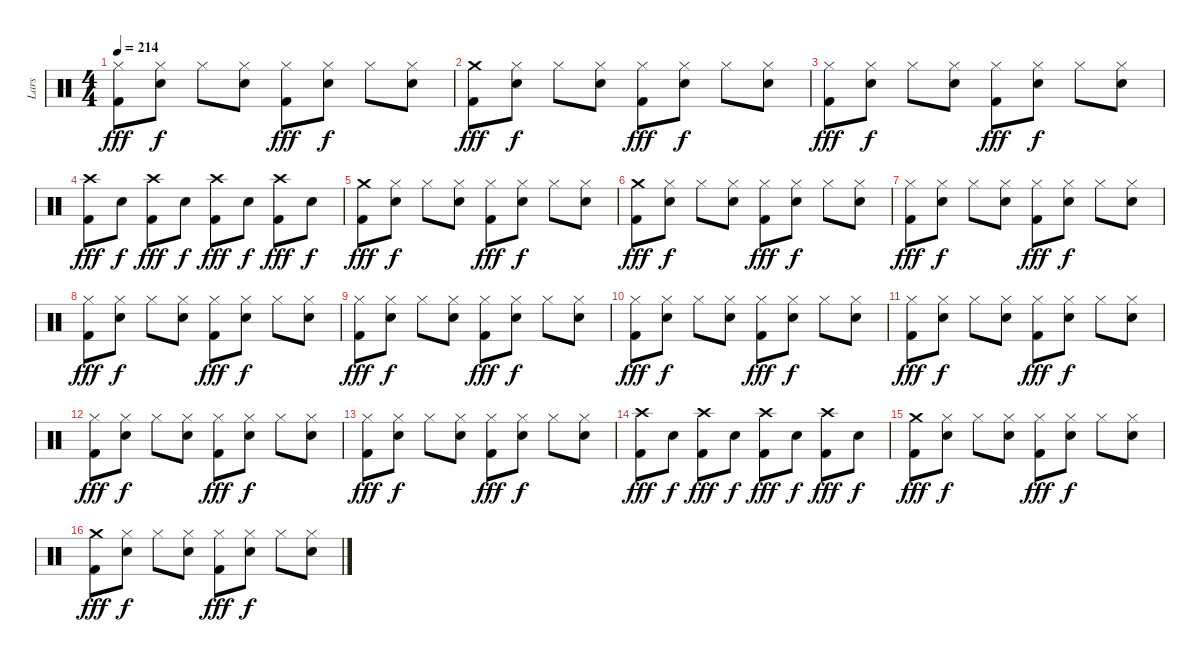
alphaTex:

\track ("Lars" "Lars") {instrument percussion}
\staff {score}
\articulation defaults
\ts (4 4)
\tempo 214
\clef neutral
\ks c
("Hi-Hat (closed)" "Kick (hit) 2").8{dy fff} ("Hi-Hat (closed)" "Snare (hit) 2").8{dy f} "Hi-Hat (closed)".8 ("Hi-Hat (closed)" "Snare (hit) 2").8 ("Hi-Hat (closed)" "Kick (hit) 2").8{dy fff} ("Hi-Hat (closed)" "Snare (hit) 2").8{dy f} "Hi-Hat (closed)".8 ("Hi-Hat (closed)" "Snare (hit) 2").8 |
("Crash medium (hit)" "Kick (hit) 2").8{dy fff} ("Hi-Hat (closed)" "Snare (hit) 2").8{dy f} "Hi-Hat (closed)".8 ("Hi-Hat (closed)" "Snare (hit) 2").8 ("Hi-Hat (closed)" "Kick (hit) 2").8{dy fff} ("Hi-Hat (closed)" "Snare (hit) 2").8{dy f} "Hi-Hat (closed)".8 ("Hi-Hat (closed)" "Snare (hit) 2").8 |
("Hi-Hat (closed)" "Kick (hit) 2").8{dy fff} ("Hi-Hat (closed)" "Snare (hit) 2").8{dy f} "Hi-Hat (closed)".8 ("Hi-Hat (closed)" "Snare (hit) 2").8 ("Hi-Hat (closed)" "Kick (hit) 2").8{dy fff} ("Hi-Hat (closed)" "Snare (hit) 2").8{dy f} "Hi-Hat (closed)".8 ("Hi-Hat (closed)" "Snare (hit) 2").8 |
("Crash high (hit)" "Kick (hit) 2").8{dy fff} "Snare (hit) 2".8{dy f} ("Crash high (hit)" "Kick (hit) 2").8{dy fff} "Snare (hit) 2".8{dy f} ("Crash high (hit)" "Kick (hit) 2").8{dy fff} "Snare (hit) 2".8{dy f} ("Crash high (hit)" "Kick (hit) 2").8{dy fff} "Snare (hit) 2".8{dy f} |
("Crash medium (hit)" "Kick (hit) 2").8{dy fff} ("Hi-Hat (closed)" "Snare (hit) 2").8{dy f} "Hi-Hat (closed)".8 ("Hi-Hat (closed)" "Snare (hit) 2").8 ("Hi-Hat (closed)" "Kick (hit) 2").8{dy fff} ("Hi-Hat (closed)" "Snare (hit) 2").8{dy f} "Hi-Hat (closed)".8 ("Hi-Hat (closed)" "Snare (hit) 2").8 |
("Crash medium (hit)" "Kick (hit) 2").8{dy fff} ("Hi-Hat (closed)" "Snare (hit) 2").8{dy f} "Hi-Hat (closed)".8 ("Hi-Hat (closed)" "Snare (hit) 2").8 ("Hi-Hat (closed)" "Kick (hit) 2").8{dy fff} ("Hi-Hat (closed)" "Snare (hit) 2").8{dy f} "Hi-Hat (closed)".8 ("Hi-Hat (closed)" "Snare (hit) 2").8 |
("Hi-Hat (closed)" "Kick (hit) 2").8{dy fff} ("Hi-Hat (closed)" "Snare (hit) 2").8{dy f} "Hi-Hat (closed)".8 ("Hi-Hat (closed)" "Snare (hit) 2").8 ("Hi-Hat (closed)" "Kick (hit) 2").8{dy fff} ("Hi-Hat (closed)" "Snare (hit) 2").8{dy f} "Hi-Hat (closed)".8 ("Hi-Hat (closed)" "Snare (hit) 2").8 |
("Hi-Hat (closed)" "Kick (hit) 2").8{dy fff} ("Hi-Hat (closed)" "Snare (hit) 2").8{dy f} "Hi-Hat (closed)".8 ("Hi-Hat (closed)" "Snare (hit) 2").8 ("Hi-Hat (closed)" "Kick (hit) 2").8{dy fff} ("Hi-Hat (closed)" "Snare (hit) 2").8{dy f} "Hi-Hat (closed)".8 ("Hi-Hat (closed)" "Snare (hit) 2").8 |
("Hi-Hat (closed)" "Kick (hit) 2").8{dy fff} ("Hi-Hat (closed)" "Snare (hit) 2").8{dy f} "Hi-Hat (closed)".8 ("Hi-Hat (closed)" "Snare (hit) 2").8 ("Hi-Hat (closed)" "Kick (hit) 2").8{dy fff} ("Hi-Hat (closed)" "Snare (hit) 2").8{dy f} "Hi-Hat (closed)".8 ("Hi-Hat (closed)" "Snare (hit) 2").8 |
("Hi-Hat (closed)" "Kick (hit) 2").8{dy fff} ("Hi-Hat (closed)" "Snare (hit) 2").8{dy f} "Hi-Hat (closed)".8 ("Hi-Hat (closed)" "Snare (hit) 2").8 ("Hi-Hat (closed)" "Kick (hit) 2").8{dy fff} ("Hi-Hat (closed)" "Snare (hit) 2").8{dy f} "Hi-Hat (closed)".8 ("Hi-Hat (closed)" "Snare (hit) 2").8 |
("Hi-Hat (closed)" "Kick (hit) 2").8{dy fff} ("Hi-Hat (closed)" "Snare (hit) 2").8{dy f} "Hi-Hat (closed)".8 ("Hi-Hat (closed)" "Snare (hit) 2").8 ("Hi-Hat (closed)" "Kick (hit) 2").8{dy fff} ("Hi-Hat (closed)" "Snare (hit) 2").8{dy f} "Hi-Hat (closed)".8 ("Hi-Hat (closed)" "Snare (hit) 2").8 |
("Hi-Hat (closed)" "Kick (hit) 2").8{dy fff} ("Hi-Hat (closed)" "Snare (hit) 2").8{dy f} "Hi-Hat (closed)".8 ("Hi-Hat (closed)" "Snare (hit) 2").8 ("Hi-Hat (closed)" "Kick (hit) 2").8{dy fff} ("Hi-Hat (closed)" "Snare (hit) 2").8{dy f} "Hi-Hat (closed)".8 ("Hi-Hat (closed)" "Snare (hit) 2").8 |
("Hi-Hat (closed)" "Kick (hit) 2").8{dy fff} ("Hi-Hat (closed)" "Snare (hit) 2").8{dy f} "Hi-Hat (closed)".8 ("Hi-Hat (closed)" "Snare (hit) 2").8 ("Hi-Hat (closed)" "Kick (hit) 2").8{dy fff} ("Hi-Hat (closed)" "Snare (hit) 2").8{dy f} "Hi-Hat (closed)".8 ("Hi-Hat (closed)" "Snare (hit) 2").8 |
("Crash high (hit)" "Kick (hit) 2").8{dy fff} "Snare (hit) 2".8{dy f} ("Crash high (hit)" "Kick (hit) 2").8{dy fff} "Snare (hit) 2".8{dy f} ("Crash high (hit)" "Kick (hit) 2").8{dy fff} "Snare (hit) 2".8{dy f} ("Crash high (hit)" "Kick (hit) 2").8{dy fff} "Snare (hit) 2".8{dy f} |
("Crash medium (hit)" "Kick (hit) 2").8{dy fff} ("Hi-Hat (closed)" "Snare (hit) 2").8{dy f} "Hi-Hat (closed)".8 ("Hi-Hat (closed)" "Snare (hit) 2").8 ("Hi-Hat (closed)" "Kick (hit) 2").8{dy fff} ("Hi-Hat (closed)" "Snare (hit) 2").8{dy f} "Hi-Hat (closed)".8 ("Hi-Hat (closed)" "Snare (hit) 2").8 |
("Crash medium (hit)" "Kick (hit) 2").8{dy fff} ("Hi-Hat (closed)" "Snare (hit) 2").8{dy f} "Hi-Hat (closed)".8 ("Hi-Hat (closed)" "Snare (hit) 2").8 ("Hi-Hat (closed)" "Kick (hit) 2").8{dy fff} ("Hi-Hat (closed)" "Snare (hit) 2").8{dy f} "Hi-Hat (closed)".8 ("Hi-Hat (closed)" "Snare (hit) 2").8
